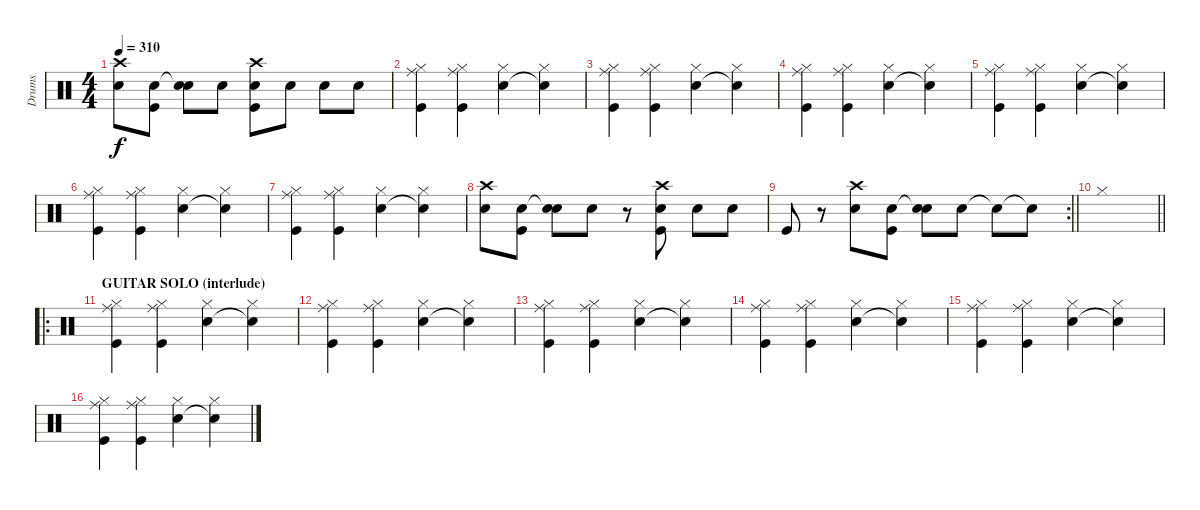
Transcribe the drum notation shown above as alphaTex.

\track ("Drums" "Drums") {instrument percussion}
\staff {score}
\articulation defaults
\ts (4 4)
\tempo 310
\clef neutral
\ks c
("Crash high (hit)" "Snare (hit) 2").8{dy f} ("Snare (hit) 2" "Kick (hit)").8 ("Snare (hit)"{t} "Snare (hit) 2").8 "Snare (hit) 2".8 ("Crash high (hit)" "Snare (hit) 2" "Kick (hit)").8 "Snare (hit) 2".8 "Snare (hit) 2".8 "Snare (hit) 2".8 |
("Ride (middle)" "Hi-Hat (closed)" "Kick (hit)").4 ("Ride (middle)" "Hi-Hat (closed)" "Kick (hit)").4 ("Snare (hit) 2" "Hi-Hat (closed)").4 ("Snare (hit)"{t} "Hi-Hat (closed)").4 |
("Ride (middle)" "Hi-Hat (closed)" "Kick (hit)").4 ("Ride (middle)" "Hi-Hat (closed)" "Kick (hit)").4 ("Snare (hit) 2" "Hi-Hat (closed)").4 ("Snare (hit)"{t} "Hi-Hat (closed)").4 |
("Ride (middle)" "Hi-Hat (closed)" "Kick (hit)").4 ("Ride (middle)" "Hi-Hat (closed)" "Kick (hit)").4 ("Snare (hit) 2" "Hi-Hat (closed)").4 ("Snare (hit)"{t} "Hi-Hat (closed)").4 |
("Ride (middle)" "Hi-Hat (closed)" "Kick (hit)").4 ("Ride (middle)" "Hi-Hat (closed)" "Kick (hit)").4 ("Snare (hit) 2" "Hi-Hat (closed)").4 ("Snare (hit)"{t} "Hi-Hat (closed)").4 |
("Ride (middle)" "Hi-Hat (closed)" "Kick (hit)").4 ("Ride (middle)" "Hi-Hat (closed)" "Kick (hit)").4 ("Snare (hit) 2" "Hi-Hat (closed)").4 ("Snare (hit)"{t} "Hi-Hat (closed)").4 |
("Ride (middle)" "Hi-Hat (closed)" "Kick (hit)").4 ("Ride (middle)" "Hi-Hat (closed)" "Kick (hit)").4 ("Snare (hit) 2" "Hi-Hat (closed)").4 ("Snare (hit)"{t} "Hi-Hat (closed)").4 |
("Crash high (hit)" "Snare (hit) 2").8 ("Snare (hit) 2" "Kick (hit)").8 ("Snare (hit)"{t} "Snare (hit) 2").8 "Snare (hit) 2".8 r.8 ("Crash high (hit)" "Snare (hit) 2" "Kick (hit)").8 "Snare (hit) 2".8 "Snare (hit) 2".8 |
\rc 2
\barLineRight lightlight "Kick (hit)".8
r.8 ("Crash high (hit)" "Snare (hit) 2").8 ("Snare (hit) 2" "Kick (hit)").8 ("Snare (hit)"{t} "Snare (hit) 2").8 "Snare (hit) 2".8 "Snare (hit)"{t}.8 "Snare (hit)"{t}.8 |
\barLineRight lightlight "Hi-Hat (closed)".1
|
\ro
\section ("" "GUITAR SOLO (interlude)")
("Ride (middle)" "Hi-Hat (closed)" "Kick (hit)").4 ("Ride (middle)" "Hi-Hat (closed)" "Kick (hit)").4 ("Snare (hit) 2" "Hi-Hat (closed)").4 ("Snare (hit)"{t} "Hi-Hat (closed)").4 |
("Ride (middle)" "Hi-Hat (closed)" "Kick (hit)").4 ("Ride (middle)" "Hi-Hat (closed)" "Kick (hit)").4 ("Snare (hit) 2" "Hi-Hat (closed)").4 ("Snare (hit)"{t} "Hi-Hat (closed)").4 |
("Ride (middle)" "Hi-Hat (closed)" "Kick (hit)").4 ("Ride (middle)" "Hi-Hat (closed)" "Kick (hit)").4 ("Snare (hit) 2" "Hi-Hat (closed)").4 ("Snare (hit)"{t} "Hi-Hat (closed)").4 |
("Ride (middle)" "Hi-Hat (closed)" "Kick (hit)").4 ("Ride (middle)" "Hi-Hat (closed)" "Kick (hit)").4 ("Snare (hit) 2" "Hi-Hat (closed)").4 ("Snare (hit)"{t} "Hi-Hat (closed)").4 |
("Ride (middle)" "Hi-Hat (closed)" "Kick (hit)").4 ("Ride (middle)" "Hi-Hat (closed)" "Kick (hit)").4 ("Snare (hit) 2" "Hi-Hat (closed)").4 ("Snare (hit)"{t} "Hi-Hat (closed)").4 |
("Ride (middle)" "Hi-Hat (closed)" "Kick (hit)").4 ("Ride (middle)" "Hi-Hat (closed)" "Kick (hit)").4 ("Snare (hit) 2" "Hi-Hat (closed)").4 ("Snare (hit)"{t} "Hi-Hat (closed)").4
